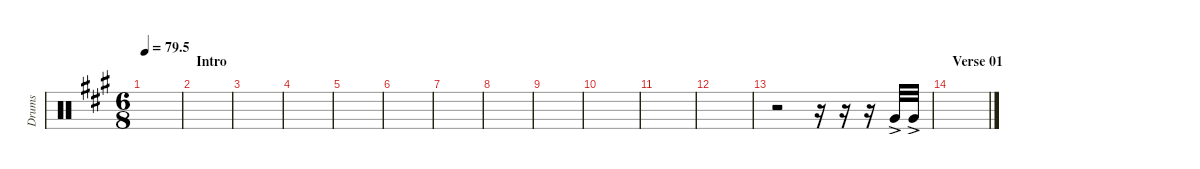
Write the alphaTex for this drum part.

\defaultSystemsLayout 4
\hideDynamics
\bracketExtendMode nobrackets
\otherSystemsTrackNameOrientation horizontal
\track ("Tom 04" "Drums") {instrument percussion}
\staff {score}
\articulation defaults
\ts (6 8)
\tempo
79.5
\accidentals auto
\clef neutral
\ottava regular
\simile none
\scale
0.474178
\ks a
|
\section ("" "Intro")
\scale
0.262911 |
\scale
0.262911 |
\scale
0.333333 |
\scale
0.333333 |
\scale
0.333333 |
\scale
0.333333 |
\scale
0.333333 |
\scale
0.333333 |
\scale
0.333333 |
\scale
0.333333 |
\scale
0.333333 |
\scale
0.333333 r.2 r.16 r.16 r.16 "Very Low Tom (hit)"{ac acc forcenatural}.32 "Very Low Tom (hit)"{ac acc forcenatural}.32 |
\section ("" "Verse 01")
\scale
0.333333 |
\scale
0.333333 |
\scale
0.333333
